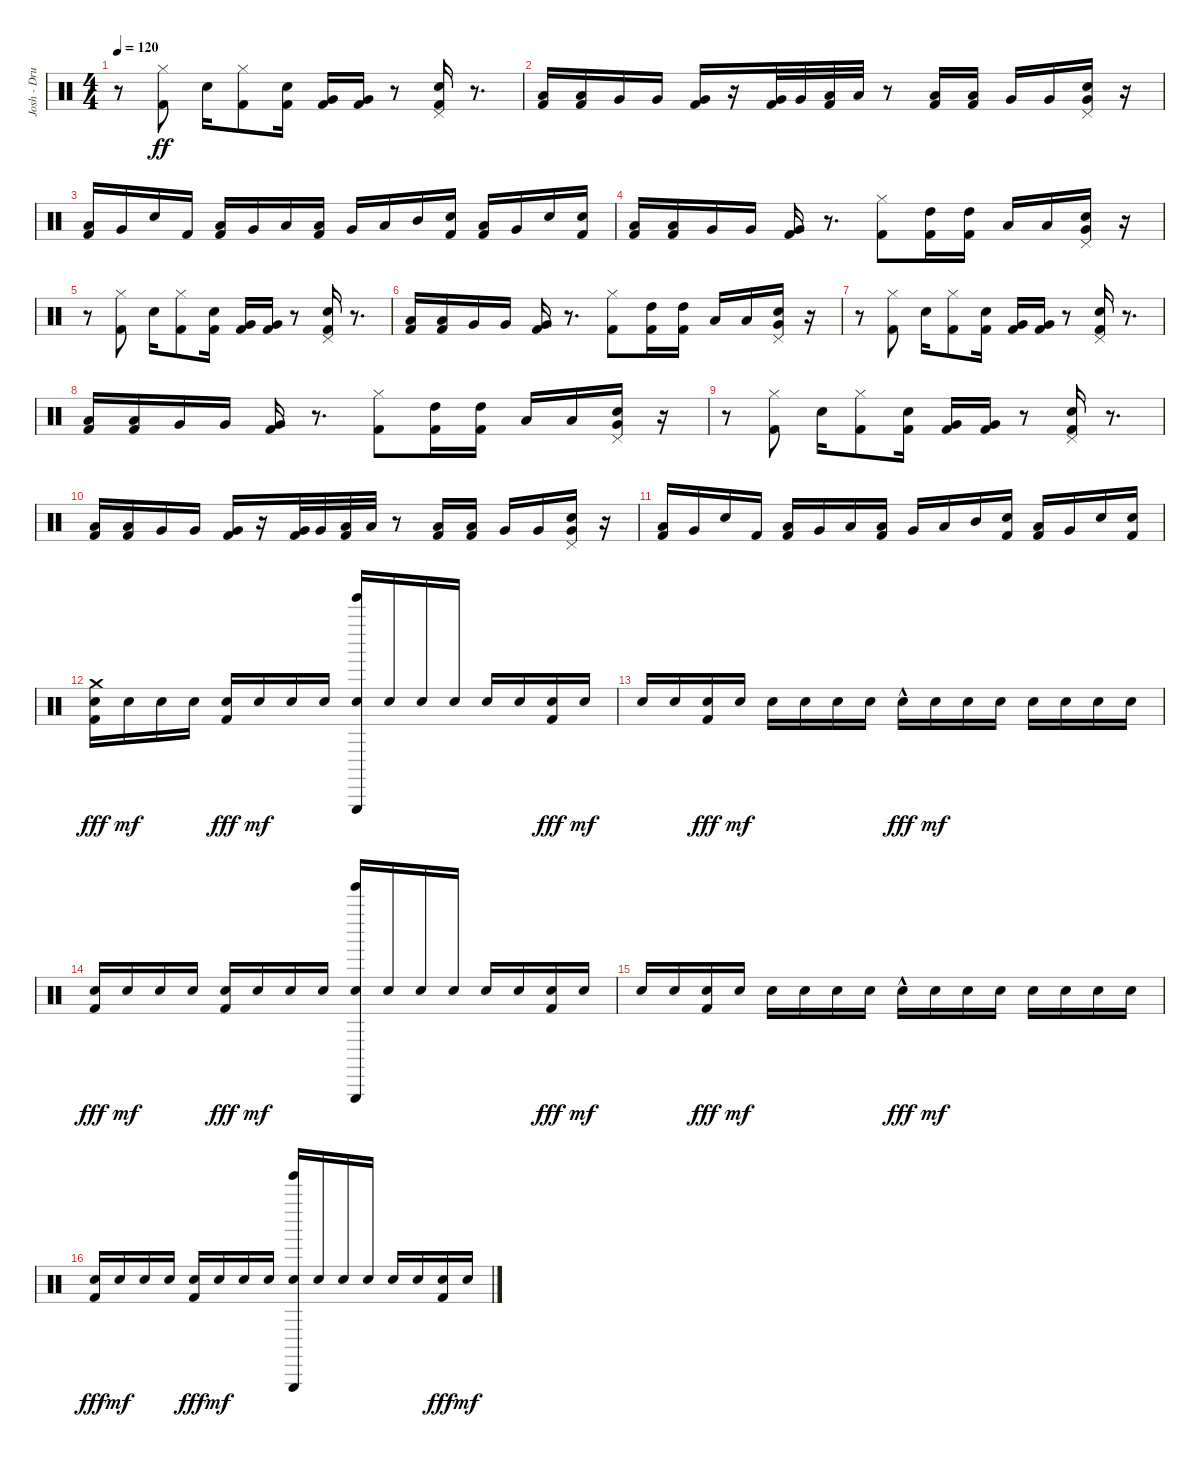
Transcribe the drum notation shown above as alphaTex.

\track ("Josh - Drums" "Josh - Dru") {instrument percussion}
\staff {score}
\articulation defaults
\ts (4 4)
\tempo 120
\clef neutral
\ks c
r.8{dy ff} ("Hi-Hat (closed)" "Kick (hit) 2").8 "Electric Snare (hit)".16 ("Hi-Hat (closed)" "Kick (hit) 2").8 ("Electric Snare (hit)" "Kick (hit) 2").16 ("Very Low Tom (hit)" "Kick (hit) 2").16 ("Very Low Tom (hit)" "Kick (hit) 2").16 r.8 ("Pedal Hi-Hat (hit)" "Snare (hit) 2" "Kick (hit) 2").16 r.8{d} |
("Low Tom (hit)" "Kick (hit) 2").16 ("Low Tom (hit)" "Kick (hit) 2").16 "Very Low Tom (hit)".16 "Very Low Tom (hit)".16 ("Very Low Tom (hit)" "Kick (hit) 2").16 r.16 ("Very Low Tom (hit)" "Kick (hit) 2").32 "Very Low Tom (hit)".32 ("Low Floor Tom (hit)" "Kick (hit) 2").32 "Low Floor Tom (hit)".32 r.8 ("Low Tom (hit)" "Kick (hit) 2").16 ("Low Tom (hit)" "Kick (hit) 2").16 "Very Low Tom (hit)".16 "Very Low Tom (hit)".16 ("Pedal Hi-Hat (hit)" "Very Low Tom (hit)" "Snare (hit) 2").16 r.16 |
("Low Tom (hit)" "Kick (hit) 2").16 "Very Low Tom (hit)".16 "Electric Snare (hit)".16 "Kick (hit) 2".16 ("Low Tom (hit)" "Kick (hit) 2").16 "Very Low Tom (hit)".16 "Low Floor Tom (hit)".16 ("Low Floor Tom (hit)" "Kick (hit) 2").16 "Very Low Tom (hit)".16 "Low Tom (hit)".16 "Mid Tom (hit)".16 ("Electric Snare (hit)" "Kick (hit) 2").16 ("Low Tom (hit)" "Kick (hit) 2").16 "Very Low Tom (hit)".16 "Electric Snare (hit)".16 ("Electric Snare (hit)" "Kick (hit) 2").16 |
("Low Tom (hit)" "Kick (hit) 2").16 ("Low Tom (hit)" "Kick (hit) 2").16 "Very Low Tom (hit)".16 "Very Low Tom (hit)".16 ("Very Low Tom (hit)" "Kick (hit) 2").16 r.8{d} ("Hi-Hat (closed)" "Kick (hit) 2").8 ("High Tom (hit)" "Kick (hit) 2").16 ("High Tom (hit)" "Kick (hit) 2").16 "Low Tom (hit)".16 "Low Tom (hit)".16 ("Pedal Hi-Hat (hit)" "Very Low Tom (hit)" "Snare (hit) 2").16 r.16 |
r.8 ("Hi-Hat (closed)" "Kick (hit) 2").8 "Electric Snare (hit)".16 ("Hi-Hat (closed)" "Kick (hit) 2").8 ("Electric Snare (hit)" "Kick (hit) 2").16 ("Very Low Tom (hit)" "Kick (hit) 2").16 ("Very Low Tom (hit)" "Kick (hit) 2").16 r.8 ("Pedal Hi-Hat (hit)" "Snare (hit) 2" "Kick (hit) 2").16 r.8{d} |
("Low Tom (hit)" "Kick (hit) 2").16 ("Low Tom (hit)" "Kick (hit) 2").16 "Very Low Tom (hit)".16 "Very Low Tom (hit)".16 ("Very Low Tom (hit)" "Kick (hit) 2").16 r.8{d} ("Hi-Hat (closed)" "Kick (hit) 2").8 ("High Tom (hit)" "Kick (hit) 2").16 ("High Tom (hit)" "Kick (hit) 2").16 "Low Tom (hit)".16 "Low Tom (hit)".16 ("Pedal Hi-Hat (hit)" "Very Low Tom (hit)" "Snare (hit) 2").16 r.16 |
r.8 ("Hi-Hat (closed)" "Kick (hit) 2").8 "Electric Snare (hit)".16 ("Hi-Hat (closed)" "Kick (hit) 2").8 ("Electric Snare (hit)" "Kick (hit) 2").16 ("Very Low Tom (hit)" "Kick (hit) 2").16 ("Very Low Tom (hit)" "Kick (hit) 2").16 r.8 ("Pedal Hi-Hat (hit)" "Snare (hit) 2" "Kick (hit) 2").16 r.8{d} |
("Low Tom (hit)" "Kick (hit) 2").16 ("Low Tom (hit)" "Kick (hit) 2").16 "Very Low Tom (hit)".16 "Very Low Tom (hit)".16 ("Very Low Tom (hit)" "Kick (hit) 2").16 r.8{d} ("Hi-Hat (closed)" "Kick (hit) 2").8 ("High Tom (hit)" "Kick (hit) 2").16 ("High Tom (hit)" "Kick (hit) 2").16 "Low Tom (hit)".16 "Low Tom (hit)".16 ("Pedal Hi-Hat (hit)" "Very Low Tom (hit)" "Snare (hit) 2").16 r.16 |
r.8 ("Hi-Hat (closed)" "Kick (hit) 2").8 "Electric Snare (hit)".16 ("Hi-Hat (closed)" "Kick (hit) 2").8 ("Electric Snare (hit)" "Kick (hit) 2").16 ("Very Low Tom (hit)" "Kick (hit) 2").16 ("Very Low Tom (hit)" "Kick (hit) 2").16 r.8 ("Pedal Hi-Hat (hit)" "Snare (hit) 2" "Kick (hit) 2").16 r.8{d} |
("Low Tom (hit)" "Kick (hit) 2").16 ("Low Tom (hit)" "Kick (hit) 2").16 "Very Low Tom (hit)".16 "Very Low Tom (hit)".16 ("Very Low Tom (hit)" "Kick (hit) 2").16 r.16 ("Very Low Tom (hit)" "Kick (hit) 2").32 "Very Low Tom (hit)".32 ("Low Floor Tom (hit)" "Kick (hit) 2").32 "Low Floor Tom (hit)".32 r.8 ("Low Tom (hit)" "Kick (hit) 2").16 ("Low Tom (hit)" "Kick (hit) 2").16 "Very Low Tom (hit)".16 "Very Low Tom (hit)".16 ("Pedal Hi-Hat (hit)" "Very Low Tom (hit)" "Snare (hit) 2").16 r.16 |
("Low Tom (hit)" "Kick (hit) 2").16 "Very Low Tom (hit)".16 "Electric Snare (hit)".16 "Kick (hit) 2".16 ("Low Tom (hit)" "Kick (hit) 2").16 "Very Low Tom (hit)".16 "Low Floor Tom (hit)".16 ("Low Floor Tom (hit)" "Kick (hit) 2").16 "Very Low Tom (hit)".16 "Low Tom (hit)".16 "Mid Tom (hit)".16 ("Electric Snare (hit)" "Kick (hit) 2").16 ("Low Tom (hit)" "Kick (hit) 2").16 "Very Low Tom (hit)".16 "Electric Snare (hit)".16 ("Electric Snare (hit)" "Kick (hit) 2").16 |
("Crash medium (hit)" "Electric Snare (hit)" "Kick (hit) 2").16{dy fff} "Electric Snare (hit)".16{dy mf} "Electric Snare (hit)".16 "Electric Snare (hit)".16 ("Electric Snare (hit)" "Kick (hit) 2").16{dy fff} "Electric Snare (hit)".16{dy mf} "Electric Snare (hit)".16 "Electric Snare (hit)".16 ("Electric Snare (hit)" "Tinkle Bell (hit)" "Triangle (hit)").16 "Electric Snare (hit)".16 "Electric Snare (hit)".16 "Electric Snare (hit)".16 "Electric Snare (hit)".16 "Electric Snare (hit)".16 ("Electric Snare (hit)" "Kick (hit) 2").16{dy fff} "Electric Snare (hit)".16{dy mf} |
"Electric Snare (hit)".16 "Electric Snare (hit)".16 ("Electric Snare (hit)" "Kick (hit) 2").16{dy fff} "Electric Snare (hit)".16{dy mf} "Electric Snare (hit)".16 "Electric Snare (hit)".16 "Electric Snare (hit)".16 "Electric Snare (hit)".16 "Snare (hit) 2"{hac}.16{dy fff} "Electric Snare (hit)".16{dy mf} "Electric Snare (hit)".16 "Electric Snare (hit)".16 "Electric Snare (hit)".16 "Electric Snare (hit)".16 "Electric Snare (hit)".16 "Electric Snare (hit)".16 |
("Electric Snare (hit)" "Kick (hit) 2").16{dy fff} "Electric Snare (hit)".16{dy mf} "Electric Snare (hit)".16 "Electric Snare (hit)".16 ("Electric Snare (hit)" "Kick (hit) 2").16{dy fff} "Electric Snare (hit)".16{dy mf} "Electric Snare (hit)".16 "Electric Snare (hit)".16 ("Electric Snare (hit)" "Tinkle Bell (hit)" "Triangle (hit)").16 "Electric Snare (hit)".16 "Electric Snare (hit)".16 "Electric Snare (hit)".16 "Electric Snare (hit)".16 "Electric Snare (hit)".16 ("Electric Snare (hit)" "Kick (hit) 2").16{dy fff} "Electric Snare (hit)".16{dy mf} |
"Electric Snare (hit)".16 "Electric Snare (hit)".16 ("Electric Snare (hit)" "Kick (hit) 2").16{dy fff} "Electric Snare (hit)".16{dy mf} "Electric Snare (hit)".16 "Electric Snare (hit)".16 "Electric Snare (hit)".16 "Electric Snare (hit)".16 "Snare (hit) 2"{hac}.16{dy fff} "Electric Snare (hit)".16{dy mf} "Electric Snare (hit)".16 "Electric Snare (hit)".16 "Electric Snare (hit)".16 "Electric Snare (hit)".16 "Electric Snare (hit)".16 "Electric Snare (hit)".16 |
("Electric Snare (hit)" "Kick (hit) 2").16{dy fff} "Electric Snare (hit)".16{dy mf} "Electric Snare (hit)".16 "Electric Snare (hit)".16 ("Electric Snare (hit)" "Kick (hit) 2").16{dy fff} "Electric Snare (hit)".16{dy mf} "Electric Snare (hit)".16 "Electric Snare (hit)".16 ("Electric Snare (hit)" "Tinkle Bell (hit)" "Triangle (hit)").16 "Electric Snare (hit)".16 "Electric Snare (hit)".16 "Electric Snare (hit)".16 "Electric Snare (hit)".16 "Electric Snare (hit)".16 ("Electric Snare (hit)" "Kick (hit) 2").16{dy fff} "Electric Snare (hit)".16{dy mf}
